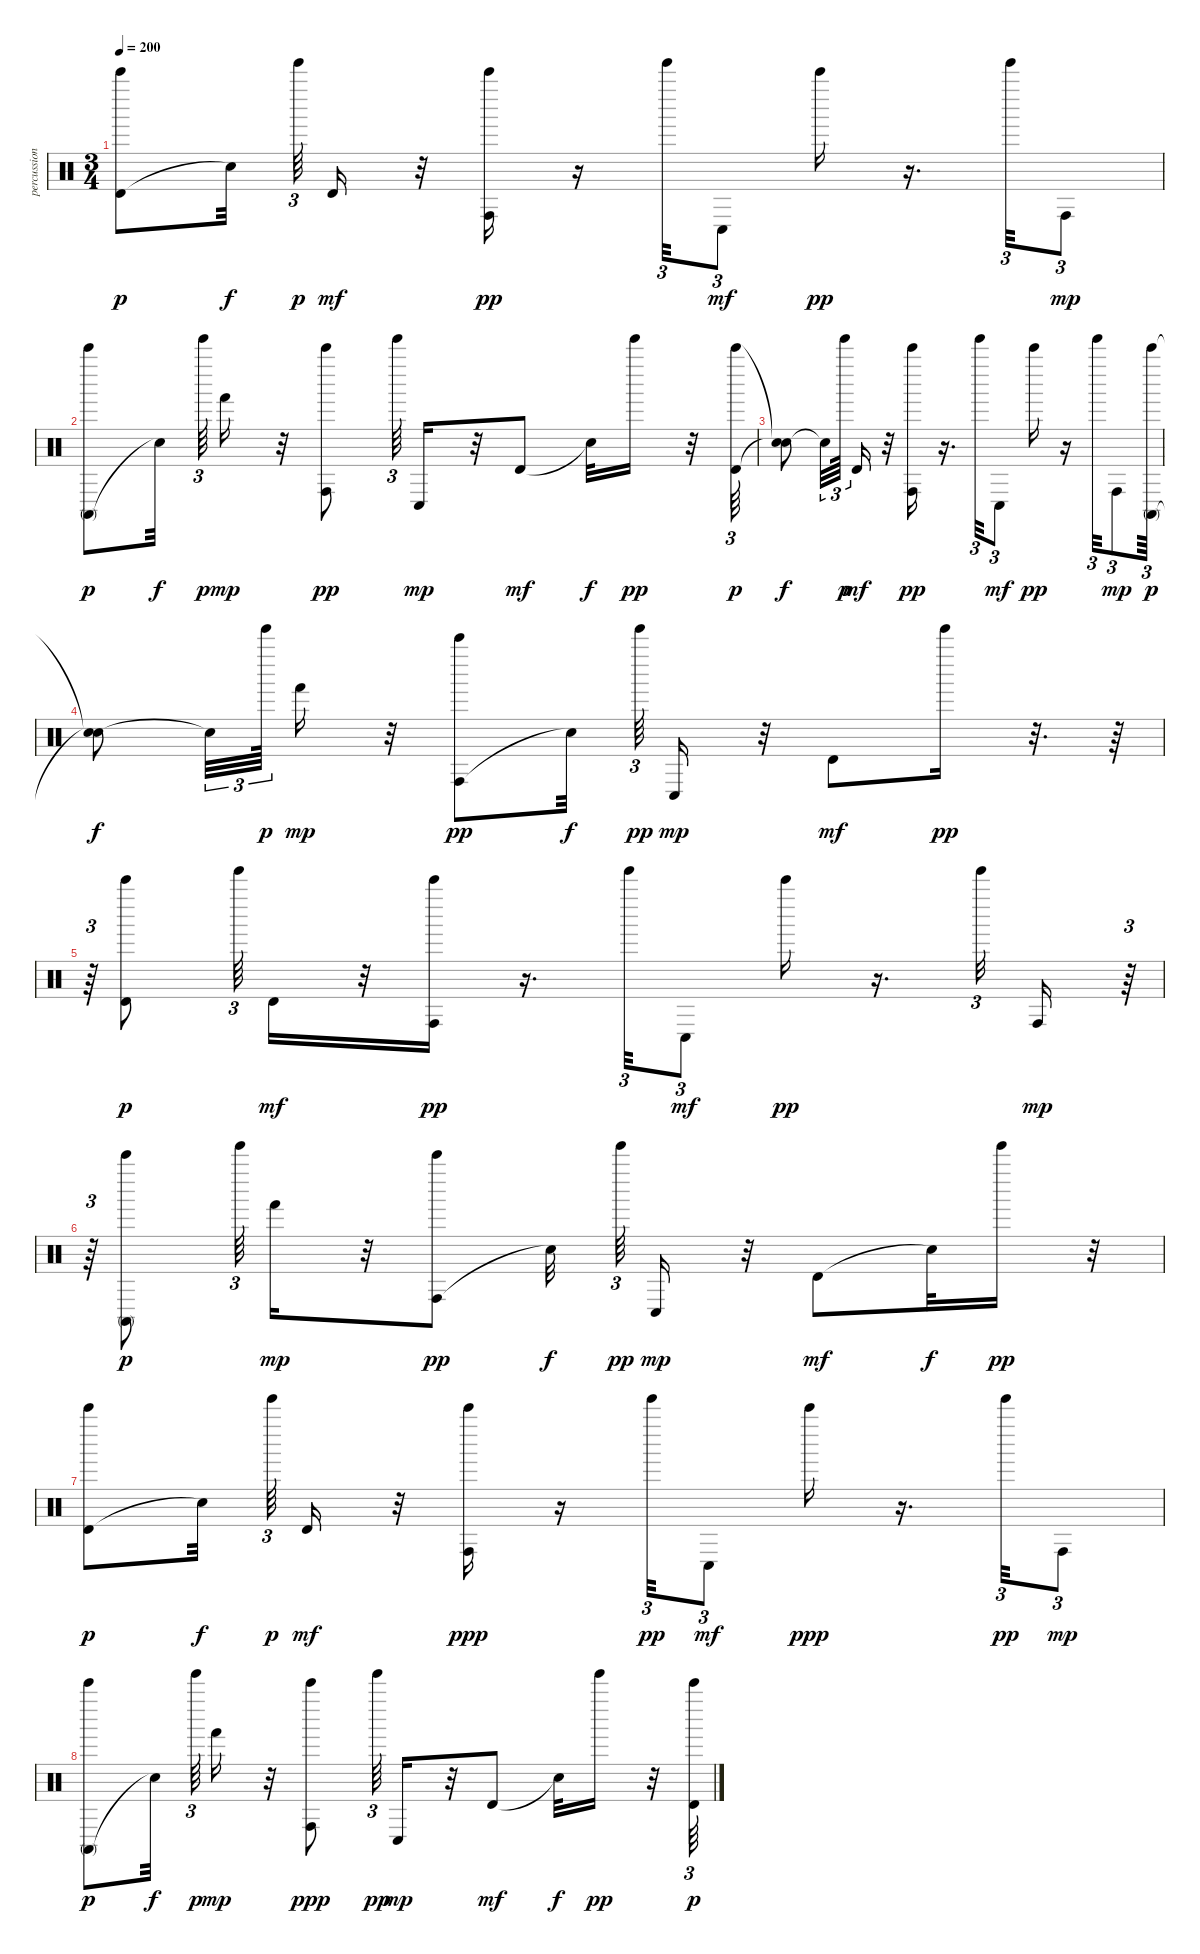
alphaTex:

\track ("percussion" "percussion") {instrument percussion}
\staff {score}
\articulation defaults
\ts (3 4)
\tempo 200
\clef neutral
\ks c
("Timbale high (hit)" "Bell Tree (hit)").8{dy p} "Snare (hit)"{t}.32{dy f} "Tinkle Bell (hit)".64{tu (3 2) dy p} "Timbale high (hit)".16{dy mf} r.32 ("Conga high (hit)" "Bell Tree (hit)").16{dy pp} r.16 "Tinkle Bell (hit)".32{tu (3 2)} "Conga low (hit)".8{tu (3 2) dy mf} "Bell Tree (hit)".16{dy pp} r.16{d} "Tinkle Bell (hit)".32{tu (3 2)} "Conga high (hit)".8{tu (3 2) dy mp} |
("Conga high (mute)" "Bell Tree (hit)").8{dy p} "Snare (hit)"{t}.32{dy f} "Tinkle Bell (hit)".64{tu (3 2) dy p} "Hand (hit)".16{dy mp} r.32 ("Conga high (hit)" "Bell Tree (hit)").8{dy pp} "Tinkle Bell (hit)".64{tu (3 2)} "Conga low (hit)".16{dy mp} r.32 "Timbale high (hit)".8{dy mf} "Snare (hit)"{t}.32{dy f} "Tinkle Bell (hit)".16{dy pp} r.32 ("Timbale high (hit)" "Bell Tree (hit)").64{tu (3 2) dy p} |
("Snare (hit)"{t} "Snare (hit)"{t}).8{dy f} "Snare (hit)"{t}.32{tu (3 2)} "Tinkle Bell (hit)".64{tu (3 2) dy p} "Timbale high (hit)".16{dy mf} r.32 ("Conga high (hit)" "Bell Tree (hit)").16{dy pp} r.16{d} "Tinkle Bell (hit)".32{tu (3 2)} "Conga low (hit)".8{tu (3 2) dy mf} "Bell Tree (hit)".16{dy pp} r.16 "Tinkle Bell (hit)".32{tu (3 2)} "Conga high (hit)".8{tu (3 2) dy mp} ("Conga high (mute)" "Bell Tree (hit)").64{tu (3 2) dy p} |
("Snare (hit)"{t} "Snare (hit)"{t}).8{dy f} "Snare (hit)"{t}.32{tu (3 2)} "Tinkle Bell (hit)".64{tu (3 2) dy p} "Hand (hit)".16{dy mp} r.32 ("Conga high (hit)" "Bell Tree (hit)").8{dy pp} "Snare (hit)"{t}.32{dy f} "Tinkle Bell (hit)".64{tu (3 2) dy pp} "Conga low (hit)".16{dy mp} r.32 "Timbale high (hit)".8{dy mf} "Tinkle Bell (hit)".16{dy pp} r.32{d} r.64 |
r.64{tu (3 2)} ("Timbale high (hit)" "Bell Tree (hit)").8{dy p} "Tinkle Bell (hit)".64{tu (3 2)} "Timbale high (hit)".16{dy mf} r.32 ("Conga high (hit)" "Bell Tree (hit)").16{dy pp} r.16{d} "Tinkle Bell (hit)".32{tu (3 2)} "Conga low (hit)".8{tu (3 2) dy mf} "Bell Tree (hit)".16{dy pp} r.16{d} "Tinkle Bell (hit)".32{tu (3 2)} "Conga high (hit)".16{dy mp} r.64{tu (3 2)} |
r.64{tu (3 2)} ("Conga high (mute)" "Bell Tree (hit)").8{dy p} "Tinkle Bell (hit)".64{tu (3 2)} "Hand (hit)".16{dy mp} r.32 ("Conga high (hit)" "Bell Tree (hit)").8{dy pp} "Snare (hit)"{t}.32{dy f} "Tinkle Bell (hit)".64{tu (3 2) dy pp} "Conga low (hit)".16{dy mp} r.32 "Timbale high (hit)".8{dy mf} "Snare (hit)"{t}.32{dy f} "Tinkle Bell (hit)".16{dy pp} r.32 |
("Timbale high (hit)" "Bell Tree (hit)").8{dy p} "Snare (hit)"{t}.32{dy f} "Tinkle Bell (hit)".64{tu (3 2) dy p} "Timbale high (hit)".16{dy mf} r.32 ("Conga high (hit)" "Bell Tree (hit)").16{dy ppp} r.16 "Tinkle Bell (hit)".32{tu (3 2) dy pp} "Conga low (hit)".8{tu (3 2) dy mf} "Bell Tree (hit)".16{dy ppp} r.16{d} "Tinkle Bell (hit)".32{tu (3 2) dy pp} "Conga high (hit)".8{tu (3 2) dy mp} |
("Conga high (mute)" "Bell Tree (hit)").8{dy p} "Snare (hit)"{t}.32{dy f} "Tinkle Bell (hit)".64{tu (3 2) dy p} "Hand (hit)".16{dy mp} r.32 ("Conga high (hit)" "Bell Tree (hit)").8{dy ppp} "Tinkle Bell (hit)".64{tu (3 2) dy pp} "Conga low (hit)".16{dy mp} r.32 "Timbale high (hit)".8{dy mf} "Snare (hit)"{t}.32{dy f} "Tinkle Bell (hit)".16{dy pp} r.32 ("Timbale high (hit)" "Bell Tree (hit)").64{tu (3 2) dy p}
